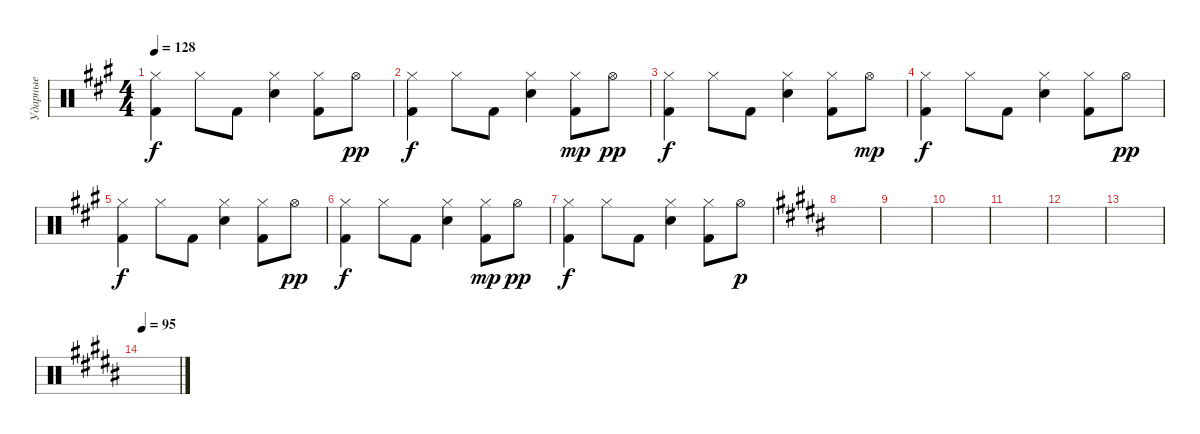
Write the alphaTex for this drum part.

\track ("Ударные" "Ударные") {instrument percussion}
\staff {score}
\articulation defaults
\ts (4 4)
\tempo 128
\clef neutral
\ks f#minor
("Hi-Hat (closed)" "Kick (hit) 2").4{dy f} "Hi-Hat (closed)".8 "Kick (hit) 2".8 ("Snare (hit) 2" "Hi-Hat (closed)").4 ("Kick (hit) 2" "Hi-Hat (closed)").8 "Hi-Hat (open)".8{dy pp} |
("Hi-Hat (closed)" "Kick (hit) 2").4{dy f} "Hi-Hat (closed)".8 "Kick (hit) 2".8 ("Snare (hit) 2" "Hi-Hat (closed)").4 ("Kick (hit) 2" "Hi-Hat (closed)").8{dy mp} "Hi-Hat (open)".8{dy pp} |
("Hi-Hat (closed)" "Kick (hit) 2").4{dy f} "Hi-Hat (closed)".8 "Kick (hit) 2".8 ("Snare (hit) 2" "Hi-Hat (closed)").4 ("Kick (hit) 2" "Hi-Hat (closed)").8 "Hi-Hat (open)".8{dy mp} |
("Hi-Hat (closed)" "Kick (hit) 2").4{dy f} "Hi-Hat (closed)".8 "Kick (hit) 2".8 ("Snare (hit) 2" "Hi-Hat (closed)").4 ("Kick (hit) 2" "Hi-Hat (closed)").8 "Hi-Hat (open)".8{dy pp} |
("Hi-Hat (closed)" "Kick (hit) 2").4{dy f} "Hi-Hat (closed)".8 "Kick (hit) 2".8 ("Snare (hit) 2" "Hi-Hat (closed)").4 ("Kick (hit) 2" "Hi-Hat (closed)").8 "Hi-Hat (open)".8{dy pp} |
("Hi-Hat (closed)" "Kick (hit) 2").4{dy f} "Hi-Hat (closed)".8 "Kick (hit) 2".8 ("Snare (hit) 2" "Hi-Hat (closed)").4 ("Kick (hit) 2" "Hi-Hat (closed)").8{dy mp} "Hi-Hat (open)".8{dy pp} |
("Hi-Hat (closed)" "Kick (hit) 2").4{dy f} "Hi-Hat (closed)".8 "Kick (hit) 2".8 ("Snare (hit) 2" "Hi-Hat (closed)").4 ("Kick (hit) 2" "Hi-Hat (closed)").8 "Hi-Hat (open)".8{dy p} |
\ks g#minor
|
|
|
|
|
|
\tempo 95
